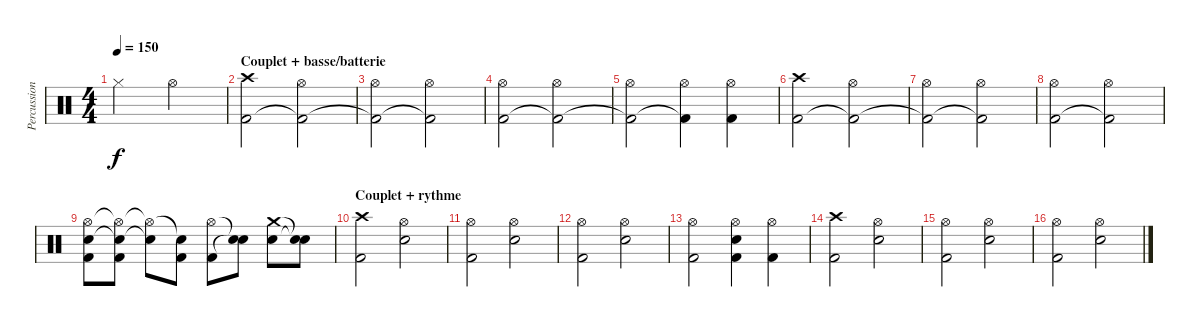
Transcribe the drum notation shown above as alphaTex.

\track ("Percussions" "Percussion") {instrument percussion}
\staff {score}
\articulation defaults
\ts (4 4)
\tempo 150
\clef neutral
\ks c "Hi-Hat (closed)".2{dy f} "Hi-Hat (open)".2
|
\section ("" "Couplet + basse/batterie")
("Crash high (hit)" "Kick (hit) 2").2 ("Hi-Hat (open)" "Kick (hit) 2"{t}).2 |
("Hi-Hat (open)" "Kick (hit) 2"{t}).2 ("Hi-Hat (open)" "Kick (hit) 2"{t}).2 |
("Hi-Hat (open)" "Kick (hit) 2").2 ("Hi-Hat (open)" "Kick (hit) 2"{t}).2 |
("Hi-Hat (open)" "Kick (hit) 2"{t}).2 ("Hi-Hat (open)" "Kick (hit) 2"{t}).4 ("Hi-Hat (open)" "Kick (hit) 2").4 |
("Crash high (hit)" "Kick (hit) 2").2 ("Hi-Hat (open)" "Kick (hit) 2"{t}).2 |
("Hi-Hat (open)" "Kick (hit) 2"{t}).2 ("Hi-Hat (open)" "Kick (hit) 2"{t}).2 |
("Hi-Hat (open)" "Kick (hit) 2").2 ("Hi-Hat (open)" "Kick (hit) 2"{t}).2 |
("Hi-Hat (open)" "Snare (hit) 2" "Kick (hit) 2").8 ("Hi-Hat (open)"{t} "Snare (hit)"{t} "Kick (hit) 2").8 ("Hi-Hat (open)"{t} "Snare (hit)"{t}).8 ("Snare (hit)"{t} "Kick (hit) 2").8 ("Hi-Hat (open)" "Kick (hit) 2").8 ("Snare (hit)"{t} "Snare (hit)"{t}).8 ("Crash medium (hit)" "Snare (hit) 2").8 ("Snare (hit)"{t} "Snare (hit)"{t}).8 |
\section ("" "Couplet + rythme")
("Crash high (hit)" "Kick (hit) 2").2 ("Hi-Hat (open)" "Snare (hit) 2").2 |
("Hi-Hat (open)" "Kick (hit) 2").2 ("Hi-Hat (open)" "Snare (hit) 2").2 |
("Hi-Hat (open)" "Kick (hit) 2").2 ("Hi-Hat (open)" "Snare (hit) 2").2 |
("Hi-Hat (open)" "Kick (hit) 2").2 ("Hi-Hat (open)" "Snare (hit) 2" "Kick (hit) 2").4 ("Hi-Hat (open)" "Kick (hit) 2").4 |
("Crash high (hit)" "Kick (hit) 2").2 ("Hi-Hat (open)" "Snare (hit) 2").2 |
("Hi-Hat (open)" "Kick (hit) 2").2 ("Hi-Hat (open)" "Snare (hit) 2").2 |
("Hi-Hat (open)" "Kick (hit) 2").2 ("Hi-Hat (open)" "Snare (hit) 2").2
